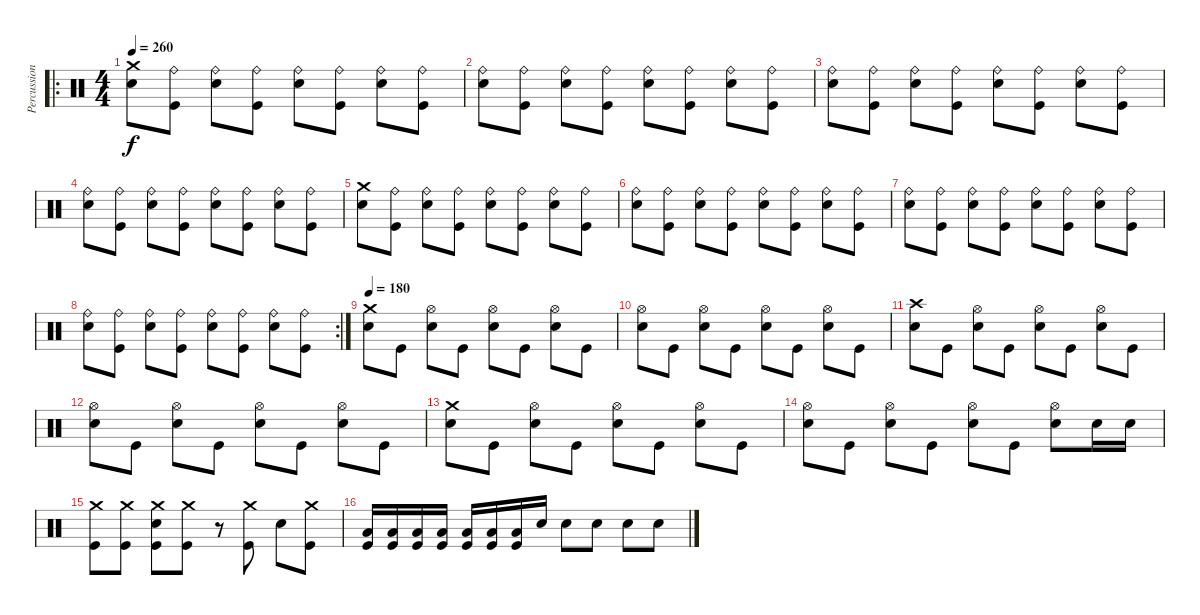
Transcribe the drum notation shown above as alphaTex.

\track ("Percussions" "Percussion") {instrument percussion}
\staff {score}
\articulation defaults
\ro
\ts (4 4)
\tempo 260
\clef neutral
\ks c
("Electric Snare (hit)" "Crash medium (hit)").8{dy f} ("Kick (hit)" "Ride (bell)").8 ("Electric Snare (hit)" "Ride (bell)").8 ("Kick (hit)" "Ride (bell)").8 ("Electric Snare (hit)" "Ride (bell)").8 ("Kick (hit)" "Ride (bell)").8 ("Electric Snare (hit)" "Ride (bell)").8 ("Kick (hit)" "Ride (bell)").8 |
("Electric Snare (hit)" "Ride (bell)").8 ("Kick (hit)" "Ride (bell)").8 ("Electric Snare (hit)" "Ride (bell)").8 ("Kick (hit)" "Ride (bell)").8 ("Electric Snare (hit)" "Ride (bell)").8 ("Kick (hit)" "Ride (bell)").8 ("Electric Snare (hit)" "Ride (bell)").8 ("Kick (hit)" "Ride (bell)").8 |
("Electric Snare (hit)" "Ride (bell)").8 ("Kick (hit)" "Ride (bell)").8 ("Electric Snare (hit)" "Ride (bell)").8 ("Kick (hit)" "Ride (bell)").8 ("Electric Snare (hit)" "Ride (bell)").8 ("Kick (hit)" "Ride (bell)").8 ("Electric Snare (hit)" "Ride (bell)").8 ("Kick (hit)" "Ride (bell)").8 |
("Electric Snare (hit)" "Ride (bell)").8 ("Kick (hit)" "Ride (bell)").8 ("Electric Snare (hit)" "Ride (bell)").8 ("Kick (hit)" "Ride (bell)").8 ("Electric Snare (hit)" "Ride (bell)").8 ("Kick (hit)" "Ride (bell)").8 ("Electric Snare (hit)" "Ride (bell)").8 ("Kick (hit)" "Ride (bell)").8 |
("Electric Snare (hit)" "Crash medium (hit)").8 ("Kick (hit)" "Ride (bell)").8 ("Electric Snare (hit)" "Ride (bell)").8 ("Kick (hit)" "Ride (bell)").8 ("Electric Snare (hit)" "Ride (bell)").8 ("Kick (hit)" "Ride (bell)").8 ("Electric Snare (hit)" "Ride (bell)").8 ("Kick (hit)" "Ride (bell)").8 |
("Electric Snare (hit)" "Ride (bell)").8 ("Kick (hit)" "Ride (bell)").8 ("Electric Snare (hit)" "Ride (bell)").8 ("Kick (hit)" "Ride (bell)").8 ("Electric Snare (hit)" "Ride (bell)").8 ("Kick (hit)" "Ride (bell)").8 ("Electric Snare (hit)" "Ride (bell)").8 ("Kick (hit)" "Ride (bell)").8 |
("Electric Snare (hit)" "Ride (bell)").8 ("Kick (hit)" "Ride (bell)").8 ("Electric Snare (hit)" "Ride (bell)").8 ("Kick (hit)" "Ride (bell)").8 ("Electric Snare (hit)" "Ride (bell)").8 ("Kick (hit)" "Ride (bell)").8 ("Electric Snare (hit)" "Ride (bell)").8 ("Kick (hit)" "Ride (bell)").8 |
\rc 2
("Electric Snare (hit)" "Ride (bell)").8 ("Kick (hit)" "Ride (bell)").8 ("Electric Snare (hit)" "Ride (bell)").8 ("Kick (hit)" "Ride (bell)").8 ("Electric Snare (hit)" "Ride (bell)").8 ("Kick (hit)" "Ride (bell)").8 ("Electric Snare (hit)" "Ride (bell)").8 ("Kick (hit)" "Ride (bell)").8 |
\tempo 180
("Electric Snare (hit)" "Crash medium (hit)").8 "Kick (hit)".8 ("Electric Snare (hit)" "Hi-Hat (open)").8 "Kick (hit)".8 ("Electric Snare (hit)" "Hi-Hat (open)").8 "Kick (hit)".8 ("Electric Snare (hit)" "Hi-Hat (open)").8 "Kick (hit)".8 |
("Electric Snare (hit)" "Hi-Hat (open)").8 "Kick (hit)".8 ("Electric Snare (hit)" "Hi-Hat (open)").8 "Kick (hit)".8 ("Electric Snare (hit)" "Hi-Hat (open)").8 "Kick (hit)".8 ("Electric Snare (hit)" "Hi-Hat (open)").8 "Kick (hit)".8 |
("Electric Snare (hit)" "Crash high (hit)").8 "Kick (hit)".8 ("Electric Snare (hit)" "Hi-Hat (open)").8 "Kick (hit)".8 ("Electric Snare (hit)" "Hi-Hat (open)").8 "Kick (hit)".8 ("Electric Snare (hit)" "Hi-Hat (open)").8 "Kick (hit)".8 |
("Electric Snare (hit)" "Hi-Hat (open)").8 "Kick (hit)".8 ("Electric Snare (hit)" "Hi-Hat (open)").8 "Kick (hit)".8 ("Electric Snare (hit)" "Hi-Hat (open)").8 "Kick (hit)".8 ("Electric Snare (hit)" "Hi-Hat (open)").8 "Kick (hit)".8 |
("Electric Snare (hit)" "Crash medium (hit)").8 "Kick (hit)".8 ("Electric Snare (hit)" "Hi-Hat (open)").8 "Kick (hit)".8 ("Electric Snare (hit)" "Hi-Hat (open)").8 "Kick (hit)".8 ("Electric Snare (hit)" "Hi-Hat (open)").8 "Kick (hit)".8 |
("Electric Snare (hit)" "Hi-Hat (open)").8 "Kick (hit)".8 ("Electric Snare (hit)" "Hi-Hat (open)").8 "Kick (hit)".8 ("Electric Snare (hit)" "Hi-Hat (open)").8 "Kick (hit)".8 ("Electric Snare (hit)" "Hi-Hat (open)").8 "Electric Snare (hit)".16 "Electric Snare (hit)".16 |
("Kick (hit)" "Crash medium (hit)").8 ("Kick (hit)" "Crash medium (hit)").8 ("Kick (hit)" "Electric Snare (hit)" "Crash medium (hit)").8 ("Kick (hit)" "Crash medium (hit)").8 r.8 ("Kick (hit)" "Crash medium (hit)").8 "Electric Snare (hit)".8 ("Kick (hit)" "Crash medium (hit)").8 |
("Kick (hit)" "Low Tom (hit)").16 ("Kick (hit)" "Low Tom (hit)").16 ("Kick (hit)" "Low Tom (hit)").16 ("Kick (hit)" "Low Tom (hit)").16 ("Kick (hit)" "Low Tom (hit)").16 ("Kick (hit)" "Low Tom (hit)").16 ("Kick (hit)" "Low Tom (hit)").16 "Electric Snare (hit)".16 "Electric Snare (hit)".8 "Electric Snare (hit)".8 "Electric Snare (hit)".8 "Electric Snare (hit)".8
